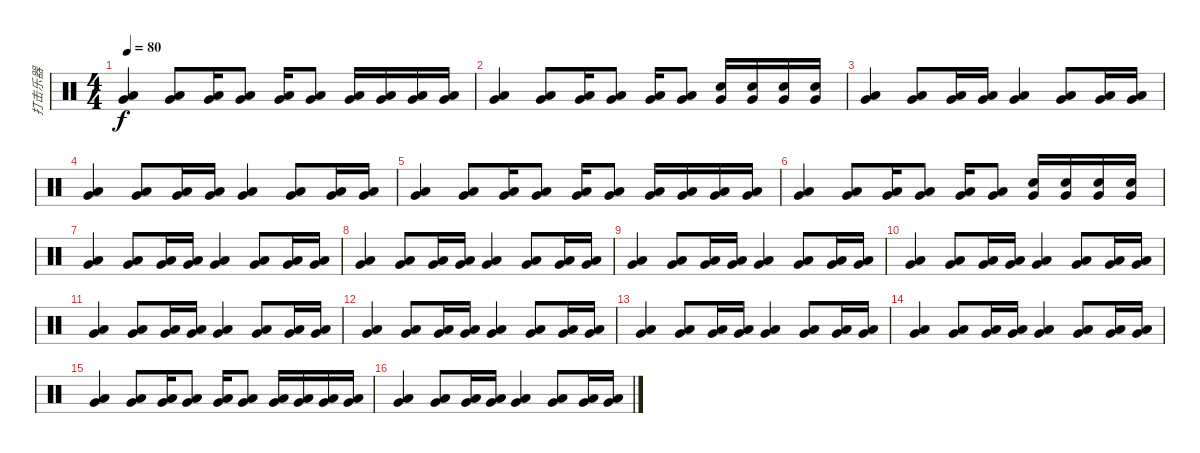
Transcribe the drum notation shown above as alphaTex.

\track ("打击乐器" "打击乐器") {instrument percussion}
\staff {score}
\articulation defaults
\ts (4 4)
\tempo 80
\clef neutral
\ks c
("Very Low Tom (hit)" "Low Floor Tom (hit)").4{dy f} ("Very Low Tom (hit)" "Low Floor Tom (hit)").8 ("Very Low Tom (hit)" "Low Floor Tom (hit)").16 ("Very Low Tom (hit)" "Low Floor Tom (hit)").8 ("Very Low Tom (hit)" "Low Floor Tom (hit)").16 ("Very Low Tom (hit)" "Low Floor Tom (hit)").8 ("Very Low Tom (hit)" "Low Floor Tom (hit)").16 ("Very Low Tom (hit)" "Low Floor Tom (hit)").16 ("Very Low Tom (hit)" "Low Floor Tom (hit)").16 ("Very Low Tom (hit)" "Low Floor Tom (hit)").16 |
("Very Low Tom (hit)" "Low Floor Tom (hit)").4 ("Very Low Tom (hit)" "Low Floor Tom (hit)").8 ("Very Low Tom (hit)" "Low Floor Tom (hit)").16 ("Very Low Tom (hit)" "Low Floor Tom (hit)").8 ("Very Low Tom (hit)" "Low Floor Tom (hit)").16 ("Low Floor Tom (hit)" "Very Low Tom (hit)").8 ("Electric Snare (hit)" "Very Low Tom (hit)").16 ("Very Low Tom (hit)" "Electric Snare (hit)").16 ("Very Low Tom (hit)" "Electric Snare (hit)").16 ("Electric Snare (hit)" "Very Low Tom (hit)").16 |
("Very Low Tom (hit)" "Low Floor Tom (hit)").4 ("Very Low Tom (hit)" "Low Floor Tom (hit)").8 ("Very Low Tom (hit)" "Low Floor Tom (hit)").16 ("Very Low Tom (hit)" "Low Floor Tom (hit)").16 ("Very Low Tom (hit)" "Low Floor Tom (hit)").4 ("Very Low Tom (hit)" "Low Floor Tom (hit)").8 ("Very Low Tom (hit)" "Low Floor Tom (hit)").16 ("Very Low Tom (hit)" "Low Floor Tom (hit)").16 |
("Very Low Tom (hit)" "Low Floor Tom (hit)").4 ("Very Low Tom (hit)" "Low Floor Tom (hit)").8 ("Very Low Tom (hit)" "Low Floor Tom (hit)").16 ("Very Low Tom (hit)" "Low Floor Tom (hit)").16 ("Very Low Tom (hit)" "Low Floor Tom (hit)").4 ("Very Low Tom (hit)" "Low Floor Tom (hit)").8 ("Very Low Tom (hit)" "Low Floor Tom (hit)").16 ("Very Low Tom (hit)" "Low Floor Tom (hit)").16 |
("Very Low Tom (hit)" "Low Floor Tom (hit)").4 ("Very Low Tom (hit)" "Low Floor Tom (hit)").8 ("Very Low Tom (hit)" "Low Floor Tom (hit)").16 ("Very Low Tom (hit)" "Low Floor Tom (hit)").8 ("Very Low Tom (hit)" "Low Floor Tom (hit)").16 ("Very Low Tom (hit)" "Low Floor Tom (hit)").8 ("Very Low Tom (hit)" "Low Floor Tom (hit)").16 ("Very Low Tom (hit)" "Low Floor Tom (hit)").16 ("Very Low Tom (hit)" "Low Floor Tom (hit)").16 ("Very Low Tom (hit)" "Low Floor Tom (hit)").16 |
("Very Low Tom (hit)" "Low Floor Tom (hit)").4 ("Very Low Tom (hit)" "Low Floor Tom (hit)").8 ("Very Low Tom (hit)" "Low Floor Tom (hit)").16 ("Very Low Tom (hit)" "Low Floor Tom (hit)").8 ("Very Low Tom (hit)" "Low Floor Tom (hit)").16 ("Low Floor Tom (hit)" "Very Low Tom (hit)").8 ("Electric Snare (hit)" "Very Low Tom (hit)").16 ("Very Low Tom (hit)" "Electric Snare (hit)").16 ("Very Low Tom (hit)" "Electric Snare (hit)").16 ("Electric Snare (hit)" "Very Low Tom (hit)").16 |
("Very Low Tom (hit)" "Low Floor Tom (hit)").4 ("Very Low Tom (hit)" "Low Floor Tom (hit)").8 ("Very Low Tom (hit)" "Low Floor Tom (hit)").16 ("Very Low Tom (hit)" "Low Floor Tom (hit)").16 ("Very Low Tom (hit)" "Low Floor Tom (hit)").4 ("Very Low Tom (hit)" "Low Floor Tom (hit)").8 ("Very Low Tom (hit)" "Low Floor Tom (hit)").16 ("Very Low Tom (hit)" "Low Floor Tom (hit)").16 |
("Very Low Tom (hit)" "Low Floor Tom (hit)").4 ("Very Low Tom (hit)" "Low Floor Tom (hit)").8 ("Very Low Tom (hit)" "Low Floor Tom (hit)").16 ("Very Low Tom (hit)" "Low Floor Tom (hit)").16 ("Very Low Tom (hit)" "Low Floor Tom (hit)").4 ("Very Low Tom (hit)" "Low Floor Tom (hit)").8 ("Very Low Tom (hit)" "Low Floor Tom (hit)").16 ("Very Low Tom (hit)" "Low Floor Tom (hit)").16 |
("Very Low Tom (hit)" "Low Floor Tom (hit)").4 ("Very Low Tom (hit)" "Low Floor Tom (hit)").8 ("Very Low Tom (hit)" "Low Floor Tom (hit)").16 ("Very Low Tom (hit)" "Low Floor Tom (hit)").16 ("Very Low Tom (hit)" "Low Floor Tom (hit)").4 ("Very Low Tom (hit)" "Low Floor Tom (hit)").8 ("Very Low Tom (hit)" "Low Floor Tom (hit)").16 ("Very Low Tom (hit)" "Low Floor Tom (hit)").16 |
("Very Low Tom (hit)" "Low Floor Tom (hit)").4 ("Very Low Tom (hit)" "Low Floor Tom (hit)").8 ("Very Low Tom (hit)" "Low Floor Tom (hit)").16 ("Very Low Tom (hit)" "Low Floor Tom (hit)").16 ("Very Low Tom (hit)" "Low Floor Tom (hit)").4 ("Very Low Tom (hit)" "Low Floor Tom (hit)").8 ("Very Low Tom (hit)" "Low Floor Tom (hit)").16 ("Very Low Tom (hit)" "Low Floor Tom (hit)").16 |
("Very Low Tom (hit)" "Low Floor Tom (hit)").4 ("Very Low Tom (hit)" "Low Floor Tom (hit)").8 ("Very Low Tom (hit)" "Low Floor Tom (hit)").16 ("Very Low Tom (hit)" "Low Floor Tom (hit)").16 ("Very Low Tom (hit)" "Low Floor Tom (hit)").4 ("Very Low Tom (hit)" "Low Floor Tom (hit)").8 ("Very Low Tom (hit)" "Low Floor Tom (hit)").16 ("Very Low Tom (hit)" "Low Floor Tom (hit)").16 |
("Very Low Tom (hit)" "Low Floor Tom (hit)").4 ("Very Low Tom (hit)" "Low Floor Tom (hit)").8 ("Very Low Tom (hit)" "Low Floor Tom (hit)").16 ("Very Low Tom (hit)" "Low Floor Tom (hit)").16 ("Very Low Tom (hit)" "Low Floor Tom (hit)").4 ("Very Low Tom (hit)" "Low Floor Tom (hit)").8 ("Very Low Tom (hit)" "Low Floor Tom (hit)").16 ("Very Low Tom (hit)" "Low Floor Tom (hit)").16 |
("Very Low Tom (hit)" "Low Floor Tom (hit)").4 ("Very Low Tom (hit)" "Low Floor Tom (hit)").8 ("Very Low Tom (hit)" "Low Floor Tom (hit)").16 ("Very Low Tom (hit)" "Low Floor Tom (hit)").16 ("Very Low Tom (hit)" "Low Floor Tom (hit)").4 ("Very Low Tom (hit)" "Low Floor Tom (hit)").8 ("Very Low Tom (hit)" "Low Floor Tom (hit)").16 ("Very Low Tom (hit)" "Low Floor Tom (hit)").16 |
("Very Low Tom (hit)" "Low Floor Tom (hit)").4 ("Very Low Tom (hit)" "Low Floor Tom (hit)").8 ("Very Low Tom (hit)" "Low Floor Tom (hit)").16 ("Very Low Tom (hit)" "Low Floor Tom (hit)").16 ("Very Low Tom (hit)" "Low Floor Tom (hit)").4 ("Very Low Tom (hit)" "Low Floor Tom (hit)").8 ("Very Low Tom (hit)" "Low Floor Tom (hit)").16 ("Very Low Tom (hit)" "Low Floor Tom (hit)").16 |
("Very Low Tom (hit)" "Low Floor Tom (hit)").4 ("Very Low Tom (hit)" "Low Floor Tom (hit)").8 ("Very Low Tom (hit)" "Low Floor Tom (hit)").16 ("Very Low Tom (hit)" "Low Floor Tom (hit)").8 ("Very Low Tom (hit)" "Low Floor Tom (hit)").16 ("Very Low Tom (hit)" "Low Floor Tom (hit)").8 ("Very Low Tom (hit)" "Low Floor Tom (hit)").16 ("Very Low Tom (hit)" "Low Floor Tom (hit)").16 ("Very Low Tom (hit)" "Low Floor Tom (hit)").16 ("Very Low Tom (hit)" "Low Floor Tom (hit)").16 |
("Very Low Tom (hit)" "Low Floor Tom (hit)").4 ("Very Low Tom (hit)" "Low Floor Tom (hit)").8 ("Very Low Tom (hit)" "Low Floor Tom (hit)").16 ("Very Low Tom (hit)" "Low Floor Tom (hit)").16 ("Very Low Tom (hit)" "Low Floor Tom (hit)").4 ("Very Low Tom (hit)" "Low Floor Tom (hit)").8 ("Very Low Tom (hit)" "Low Floor Tom (hit)").16 ("Very Low Tom (hit)" "Low Floor Tom (hit)").16
